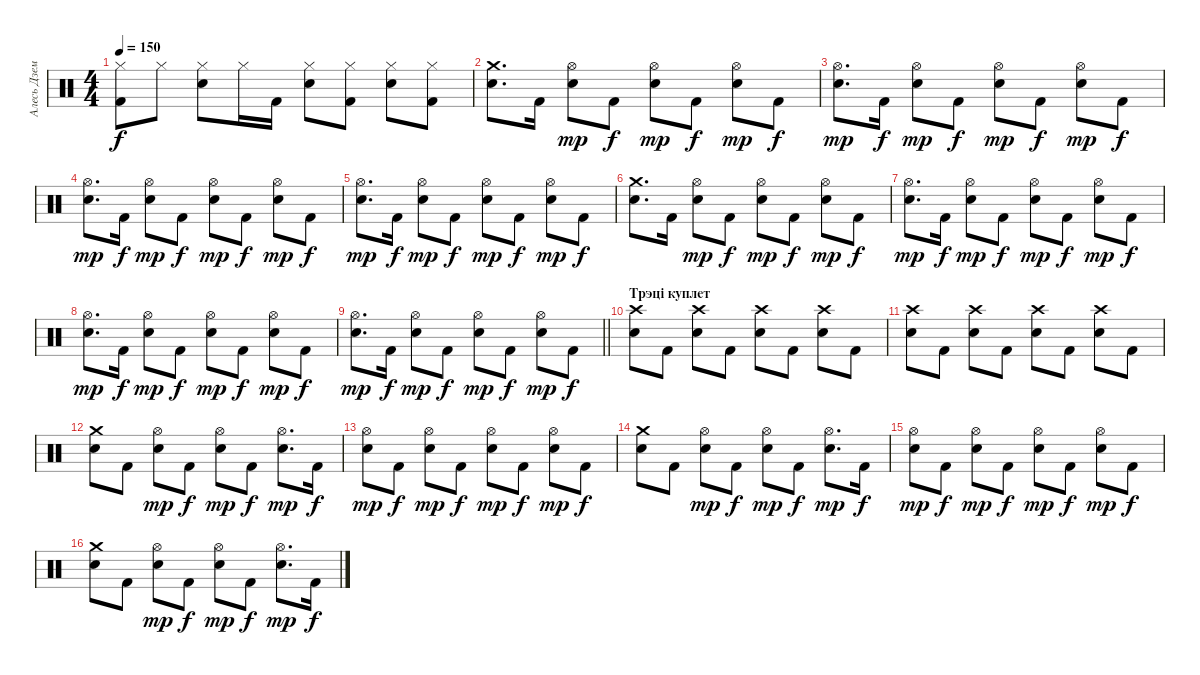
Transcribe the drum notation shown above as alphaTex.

\track ("Алесь Дземідовіч" "Алесь Дзем") {instrument percussion}
\staff {score}
\articulation defaults
\ts (4 4)
\tempo 150
\clef neutral
\ks c
("Hi-Hat (closed)" "Kick (hit) 2").8{dy f} "Hi-Hat (closed)".8 ("Hi-Hat (closed)" "Electric Snare (hit)").8 "Hi-Hat (closed)".16 "Kick (hit) 2".16 ("Hi-Hat (closed)" "Electric Snare (hit)").8 ("Hi-Hat (closed)" "Kick (hit) 2").8 ("Hi-Hat (closed)" "Electric Snare (hit)").8 ("Hi-Hat (closed)" "Kick (hit) 2").8 |
("Crash medium (hit)" "Electric Snare (hit)").8{d} "Kick (hit) 2".16 ("Hi-Hat (open)" "Electric Snare (hit)").8{dy mp} "Kick (hit) 2".8{dy f} ("Hi-Hat (open)" "Electric Snare (hit)").8{dy mp} "Kick (hit) 2".8{dy f} ("Hi-Hat (open)" "Electric Snare (hit)").8{dy mp} "Kick (hit) 2".8{dy f} |
("Hi-Hat (open)" "Electric Snare (hit)").8{d dy mp} "Kick (hit) 2".16{dy f} ("Hi-Hat (open)" "Electric Snare (hit)").8{dy mp} "Kick (hit) 2".8{dy f} ("Hi-Hat (open)" "Electric Snare (hit)").8{dy mp} "Kick (hit) 2".8{dy f} ("Hi-Hat (open)" "Electric Snare (hit)").8{dy mp} "Kick (hit) 2".8{dy f} |
("Hi-Hat (open)" "Electric Snare (hit)").8{d dy mp} "Kick (hit) 2".16{dy f} ("Hi-Hat (open)" "Electric Snare (hit)").8{dy mp} "Kick (hit) 2".8{dy f} ("Hi-Hat (open)" "Electric Snare (hit)").8{dy mp} "Kick (hit) 2".8{dy f} ("Hi-Hat (open)" "Electric Snare (hit)").8{dy mp} "Kick (hit) 2".8{dy f} |
("Hi-Hat (open)" "Electric Snare (hit)").8{d dy mp} "Kick (hit) 2".16{dy f} ("Hi-Hat (open)" "Electric Snare (hit)").8{dy mp} "Kick (hit) 2".8{dy f} ("Hi-Hat (open)" "Electric Snare (hit)").8{dy mp} "Kick (hit) 2".8{dy f} ("Hi-Hat (open)" "Electric Snare (hit)").8{dy mp} "Kick (hit) 2".8{dy f} |
("Crash medium (hit)" "Electric Snare (hit)").8{d} "Kick (hit) 2".16 ("Hi-Hat (open)" "Electric Snare (hit)").8{dy mp} "Kick (hit) 2".8{dy f} ("Hi-Hat (open)" "Electric Snare (hit)").8{dy mp} "Kick (hit) 2".8{dy f} ("Hi-Hat (open)" "Electric Snare (hit)").8{dy mp} "Kick (hit) 2".8{dy f} |
("Hi-Hat (open)" "Electric Snare (hit)").8{d dy mp} "Kick (hit) 2".16{dy f} ("Hi-Hat (open)" "Electric Snare (hit)").8{dy mp} "Kick (hit) 2".8{dy f} ("Hi-Hat (open)" "Electric Snare (hit)").8{dy mp} "Kick (hit) 2".8{dy f} ("Hi-Hat (open)" "Electric Snare (hit)").8{dy mp} "Kick (hit) 2".8{dy f} |
("Hi-Hat (open)" "Electric Snare (hit)").8{d dy mp} "Kick (hit) 2".16{dy f} ("Hi-Hat (open)" "Electric Snare (hit)").8{dy mp} "Kick (hit) 2".8{dy f} ("Hi-Hat (open)" "Electric Snare (hit)").8{dy mp} "Kick (hit) 2".8{dy f} ("Hi-Hat (open)" "Electric Snare (hit)").8{dy mp} "Kick (hit) 2".8{dy f} |
\barLineRight lightlight
("Hi-Hat (open)" "Electric Snare (hit)").8{d dy mp} "Kick (hit) 2".16{dy f} ("Hi-Hat (open)" "Electric Snare (hit)").8{dy mp} "Kick (hit) 2".8{dy f} ("Hi-Hat (open)" "Electric Snare (hit)").8{dy mp} "Kick (hit) 2".8{dy f} ("Hi-Hat (open)" "Electric Snare (hit)").8{dy mp} "Kick (hit) 2".8{dy f} |
\section ("" "Трэці куплет")
("Crash high (hit)" "Electric Snare (hit)").8 "Kick (hit) 2".8 ("Crash high (hit)" "Electric Snare (hit)").8 "Kick (hit) 2".8 ("Crash high (hit)" "Electric Snare (hit)").8 "Kick (hit) 2".8 ("Crash high (hit)" "Electric Snare (hit)").8 "Kick (hit) 2".8 |
("Crash high (hit)" "Electric Snare (hit)").8 "Kick (hit) 2".8 ("Crash high (hit)" "Electric Snare (hit)").8 "Kick (hit) 2".8 ("Crash high (hit)" "Electric Snare (hit)").8 "Kick (hit) 2".8 ("Crash high (hit)" "Electric Snare (hit)").8 "Kick (hit) 2".8 |
("Crash medium (hit)" "Electric Snare (hit)").8 "Kick (hit) 2".8 ("Hi-Hat (open)" "Electric Snare (hit)").8{dy mp} "Kick (hit) 2".8{dy f} ("Hi-Hat (open)" "Electric Snare (hit)").8{dy mp} "Kick (hit) 2".8{dy f} ("Hi-Hat (open)" "Electric Snare (hit)").8{d dy mp} "Kick (hit) 2".16{dy f} |
("Hi-Hat (open)" "Electric Snare (hit)").8{dy mp} "Kick (hit) 2".8{dy f} ("Hi-Hat (open)" "Electric Snare (hit)").8{dy mp} "Kick (hit) 2".8{dy f} ("Hi-Hat (open)" "Electric Snare (hit)").8{dy mp} "Kick (hit) 2".8{dy f} ("Hi-Hat (open)" "Electric Snare (hit)").8{dy mp} "Kick (hit) 2".8{dy f} |
("Crash medium (hit)" "Electric Snare (hit)").8 "Kick (hit) 2".8 ("Hi-Hat (open)" "Electric Snare (hit)").8{dy mp} "Kick (hit) 2".8{dy f} ("Hi-Hat (open)" "Electric Snare (hit)").8{dy mp} "Kick (hit) 2".8{dy f} ("Hi-Hat (open)" "Electric Snare (hit)").8{d dy mp} "Kick (hit) 2".16{dy f} |
("Hi-Hat (open)" "Electric Snare (hit)").8{dy mp} "Kick (hit) 2".8{dy f} ("Hi-Hat (open)" "Electric Snare (hit)").8{dy mp} "Kick (hit) 2".8{dy f} ("Hi-Hat (open)" "Electric Snare (hit)").8{dy mp} "Kick (hit) 2".8{dy f} ("Hi-Hat (open)" "Electric Snare (hit)").8{dy mp} "Kick (hit) 2".8{dy f} |
("Crash medium (hit)" "Electric Snare (hit)").8 "Kick (hit) 2".8 ("Hi-Hat (open)" "Electric Snare (hit)").8{dy mp} "Kick (hit) 2".8{dy f} ("Hi-Hat (open)" "Electric Snare (hit)").8{dy mp} "Kick (hit) 2".8{dy f} ("Hi-Hat (open)" "Electric Snare (hit)").8{d dy mp} "Kick (hit) 2".16{dy f}
